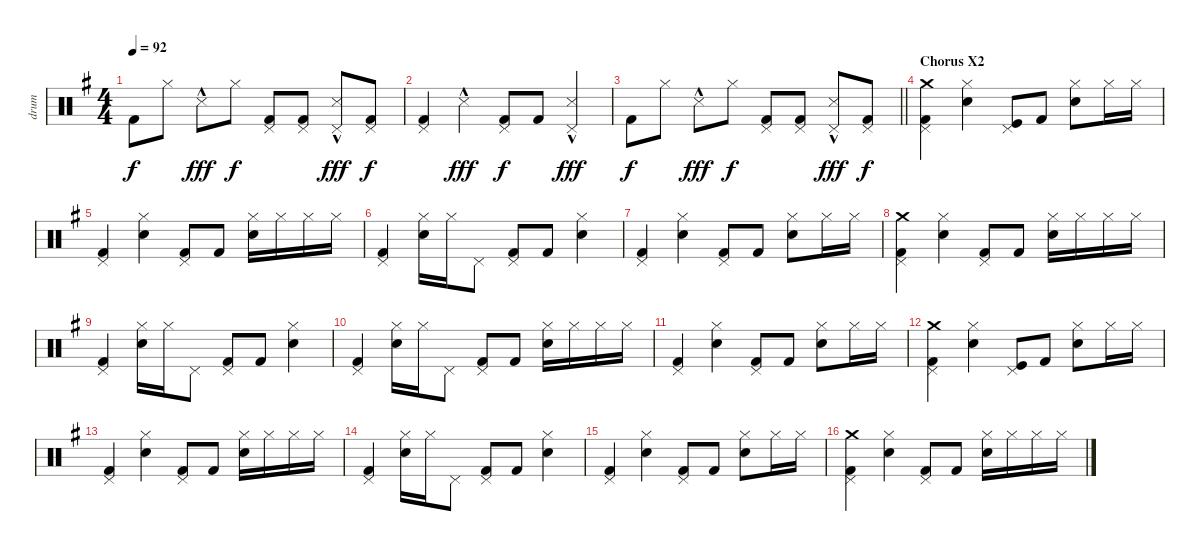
\track ("drum" "drum") {instrument percussion}
\staff {score}
\articulation defaults
\ts (4 4)
\tempo 92
\clef neutral
\ks g "Kick (hit) 2".8{dy f} "Hi-Hat (closed)".8 "Snare (side stick) 3"{hac}.8{dy fff} "Hi-Hat (closed)".8{dy f}
("Kick (hit) 2" "Pedal Hi-Hat (hit)").8 ("Kick (hit) 2" "Pedal Hi-Hat (hit)").8 ("Pedal Hi-Hat (hit)"{hac} "Snare (side stick) 3"{hac}).8{dy fff} ("Kick (hit) 2" "Pedal Hi-Hat (hit)").8{dy f} |
("Kick (hit) 2" "Pedal Hi-Hat (hit)").4 "Snare (side stick) 3"{hac}.4{dy fff} ("Kick (hit) 2" "Pedal Hi-Hat (hit)").8{dy f} "Kick (hit) 2".8 ("Pedal Hi-Hat (hit)"{hac} "Snare (side stick) 3"{hac}).4{dy fff} |
\barLineRight lightlight "Kick (hit) 2".8{dy f} "Hi-Hat (closed)".8 "Snare (side stick) 3"{hac}.8{dy fff} "Hi-Hat (closed)".8{dy f}
("Kick (hit) 2" "Pedal Hi-Hat (hit)").8 ("Kick (hit) 2" "Pedal Hi-Hat (hit)").8 ("Pedal Hi-Hat (hit)"{hac} "Snare (side stick) 3"{hac}).8{dy fff} ("Kick (hit) 2" "Pedal Hi-Hat (hit)").8{dy f} |
\section ("" "Chorus X2")
("Kick (hit) 2" "Pedal Hi-Hat (hit)" "Crash medium (hit)").4 ("Snare (hit) 2" "Hi-Hat (closed)").4 ("Kick (hit)" "Pedal Hi-Hat (hit)").8 "Kick (hit) 2".8 ("Snare (hit) 2" "Hi-Hat (closed)").8 "Hi-Hat (closed)".16 "Hi-Hat (closed)".16 |
("Kick (hit) 2" "Pedal Hi-Hat (hit)").4 ("Snare (hit) 2" "Hi-Hat (closed)").4 ("Kick (hit) 2" "Pedal Hi-Hat (hit)").8 "Kick (hit) 2".8 ("Snare (hit) 2" "Hi-Hat (closed)").16 "Hi-Hat (closed)".16 "Hi-Hat (closed)".16 "Hi-Hat (closed)".16 |
("Kick (hit) 2" "Pedal Hi-Hat (hit)").4 ("Snare (hit) 2" "Hi-Hat (closed)").16 "Hi-Hat (closed)".16 "Pedal Hi-Hat (hit)".8 ("Kick (hit) 2" "Pedal Hi-Hat (hit)").8 "Kick (hit) 2".8 ("Snare (hit) 2" "Hi-Hat (closed)").4 |
("Kick (hit) 2" "Pedal Hi-Hat (hit)").4 ("Snare (hit) 2" "Hi-Hat (closed)").4 ("Kick (hit) 2" "Pedal Hi-Hat (hit)").8 "Kick (hit) 2".8 ("Snare (hit) 2" "Hi-Hat (closed)").8 "Hi-Hat (closed)".16 "Hi-Hat (closed)".16 |
("Kick (hit) 2" "Pedal Hi-Hat (hit)" "Crash medium (hit)").4 ("Snare (hit) 2" "Hi-Hat (closed)").4 ("Kick (hit) 2" "Pedal Hi-Hat (hit)").8 "Kick (hit) 2".8 ("Snare (hit) 2" "Hi-Hat (closed)").16 "Hi-Hat (closed)".16 "Hi-Hat (closed)".16 "Hi-Hat (closed)".16 |
("Kick (hit) 2" "Pedal Hi-Hat (hit)").4 ("Snare (hit) 2" "Hi-Hat (closed)").16 "Hi-Hat (closed)".16 "Pedal Hi-Hat (hit)".8 ("Kick (hit) 2" "Pedal Hi-Hat (hit)").8 "Kick (hit) 2".8 ("Snare (hit) 2" "Hi-Hat (closed)").4 |
("Kick (hit) 2" "Pedal Hi-Hat (hit)").4 ("Snare (hit) 2" "Hi-Hat (closed)").16 "Hi-Hat (closed)".16 "Pedal Hi-Hat (hit)".8 ("Kick (hit) 2" "Pedal Hi-Hat (hit)").8 "Kick (hit) 2".8 ("Snare (hit) 2" "Hi-Hat (closed)").16 "Hi-Hat (closed)".16 "Hi-Hat (closed)".16 "Hi-Hat (closed)".16 |
("Kick (hit) 2" "Pedal Hi-Hat (hit)").4 ("Snare (hit) 2" "Hi-Hat (closed)").4 ("Kick (hit) 2" "Pedal Hi-Hat (hit)").8 "Kick (hit) 2".8 ("Snare (hit) 2" "Hi-Hat (closed)").8 "Hi-Hat (closed)".16 "Hi-Hat (closed)".16 |
("Kick (hit) 2" "Pedal Hi-Hat (hit)" "Crash medium (hit)").4 ("Snare (hit) 2" "Hi-Hat (closed)").4 ("Kick (hit)" "Pedal Hi-Hat (hit)").8 "Kick (hit) 2".8 ("Snare (hit) 2" "Hi-Hat (closed)").8 "Hi-Hat (closed)".16 "Hi-Hat (closed)".16 |
("Kick (hit) 2" "Pedal Hi-Hat (hit)").4 ("Snare (hit) 2" "Hi-Hat (closed)").4 ("Kick (hit) 2" "Pedal Hi-Hat (hit)").8 "Kick (hit) 2".8 ("Snare (hit) 2" "Hi-Hat (closed)").16 "Hi-Hat (closed)".16 "Hi-Hat (closed)".16 "Hi-Hat (closed)".16 |
("Kick (hit) 2" "Pedal Hi-Hat (hit)").4 ("Snare (hit) 2" "Hi-Hat (closed)").16 "Hi-Hat (closed)".16 "Pedal Hi-Hat (hit)".8 ("Kick (hit) 2" "Pedal Hi-Hat (hit)").8 "Kick (hit) 2".8 ("Snare (hit) 2" "Hi-Hat (closed)").4 |
("Kick (hit) 2" "Pedal Hi-Hat (hit)").4 ("Snare (hit) 2" "Hi-Hat (closed)").4 ("Kick (hit) 2" "Pedal Hi-Hat (hit)").8 "Kick (hit) 2".8 ("Snare (hit) 2" "Hi-Hat (closed)").8 "Hi-Hat (closed)".16 "Hi-Hat (closed)".16 |
("Kick (hit) 2" "Pedal Hi-Hat (hit)" "Crash medium (hit)").4 ("Snare (hit) 2" "Hi-Hat (closed)").4 ("Kick (hit) 2" "Pedal Hi-Hat (hit)").8 "Kick (hit) 2".8 ("Snare (hit) 2" "Hi-Hat (closed)").16 "Hi-Hat (closed)".16 "Hi-Hat (closed)".16 "Hi-Hat (closed)".16
